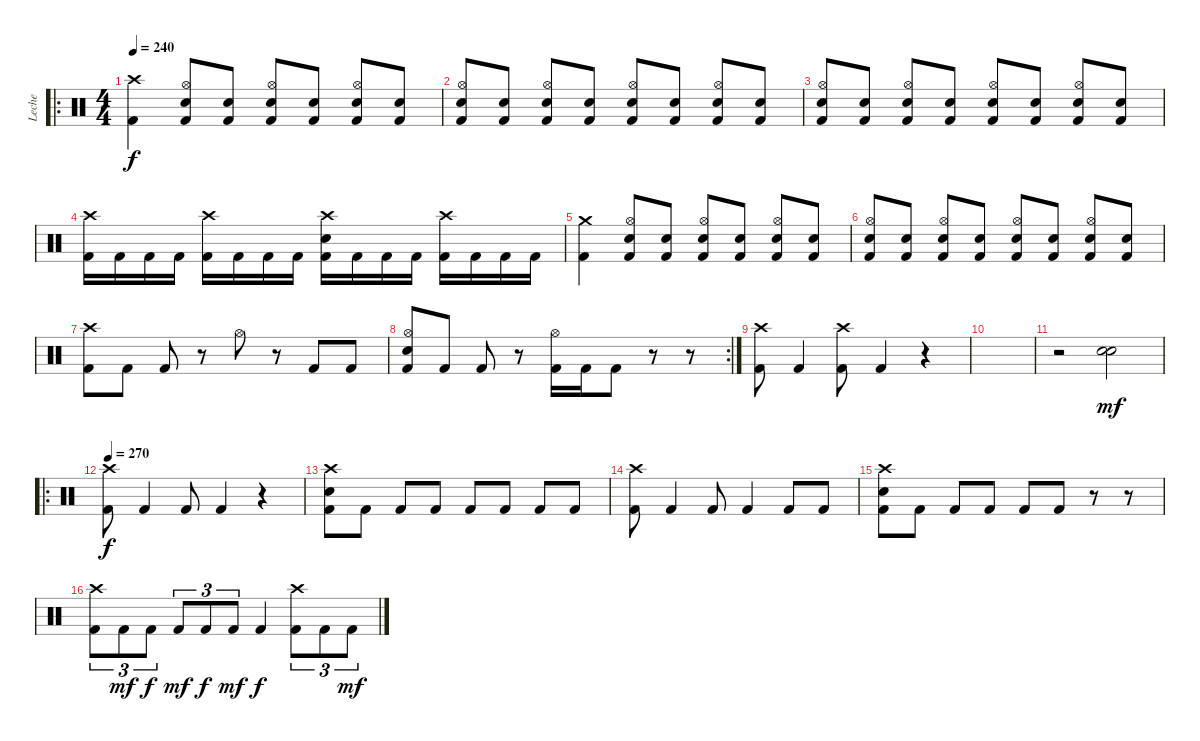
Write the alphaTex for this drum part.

\track ("Leche" "Leche") {instrument percussion}
\staff {score}
\articulation defaults
\ro
\ts (4 4)
\tempo 240
\clef neutral
\ks c
("Crash high (hit)" "Kick (hit) 2").4{dy f} ("Hi-Hat (open)" "Electric Snare (hit)" "Kick (hit) 2").8 ("Electric Snare (hit)" "Kick (hit) 2").8 ("Hi-Hat (open)" "Electric Snare (hit)" "Kick (hit) 2").8 ("Electric Snare (hit)" "Kick (hit) 2").8 ("Hi-Hat (open)" "Electric Snare (hit)" "Kick (hit) 2").8 ("Electric Snare (hit)" "Kick (hit) 2").8 |
("Hi-Hat (open)" "Electric Snare (hit)" "Kick (hit) 2").8 ("Electric Snare (hit)" "Kick (hit) 2").8 ("Hi-Hat (open)" "Electric Snare (hit)" "Kick (hit) 2").8 ("Electric Snare (hit)" "Kick (hit) 2").8 ("Hi-Hat (open)" "Electric Snare (hit)" "Kick (hit) 2").8 ("Electric Snare (hit)" "Kick (hit) 2").8 ("Hi-Hat (open)" "Electric Snare (hit)" "Kick (hit) 2").8 ("Electric Snare (hit)" "Kick (hit) 2").8 |
("Hi-Hat (open)" "Electric Snare (hit)" "Kick (hit) 2").8 ("Electric Snare (hit)" "Kick (hit) 2").8 ("Hi-Hat (open)" "Electric Snare (hit)" "Kick (hit) 2").8 ("Electric Snare (hit)" "Kick (hit) 2").8 ("Hi-Hat (open)" "Electric Snare (hit)" "Kick (hit) 2").8 ("Electric Snare (hit)" "Kick (hit) 2").8 ("Hi-Hat (open)" "Electric Snare (hit)" "Kick (hit) 2").8 ("Electric Snare (hit)" "Kick (hit) 2").8 |
("Crash high (hit)" "Kick (hit) 2").16 "Kick (hit) 2".16 "Kick (hit) 2".16 "Kick (hit) 2".16 ("Crash high (hit)" "Kick (hit) 2").16 "Kick (hit) 2".16 "Kick (hit) 2".16 "Kick (hit) 2".16 ("Crash high (hit)" "Electric Snare (hit)" "Kick (hit) 2").16 "Kick (hit) 2".16 "Kick (hit) 2".16 "Kick (hit) 2".16 ("Crash high (hit)" "Kick (hit) 2").16 "Kick (hit) 2".16 "Kick (hit) 2".16 "Kick (hit) 2".16 |
("Crash medium (hit)" "Kick (hit) 2").4 ("Hi-Hat (open)" "Electric Snare (hit)" "Kick (hit) 2").8 ("Electric Snare (hit)" "Kick (hit) 2").8 ("Hi-Hat (open)" "Electric Snare (hit)" "Kick (hit) 2").8 ("Electric Snare (hit)" "Kick (hit) 2").8 ("Hi-Hat (open)" "Electric Snare (hit)" "Kick (hit) 2").8 ("Electric Snare (hit)" "Kick (hit) 2").8 |
("Hi-Hat (open)" "Electric Snare (hit)" "Kick (hit) 2").8 ("Electric Snare (hit)" "Kick (hit) 2").8 ("Hi-Hat (open)" "Electric Snare (hit)" "Kick (hit) 2").8 ("Electric Snare (hit)" "Kick (hit) 2").8 ("Hi-Hat (open)" "Electric Snare (hit)" "Kick (hit) 2").8 ("Electric Snare (hit)" "Kick (hit) 2").8 ("Hi-Hat (open)" "Electric Snare (hit)" "Kick (hit) 2").8 ("Electric Snare (hit)" "Kick (hit) 2").8 |
("Crash high (hit)" "Kick (hit) 2").8 "Kick (hit) 2".8 "Kick (hit) 2".8 r.8 "Hi-Hat (open)".8 r.8 "Kick (hit) 2".8 "Kick (hit) 2".8 |
\rc 2
("Hi-Hat (open)" "Electric Snare (hit)" "Kick (hit) 2").8 "Kick (hit) 2".8 "Kick (hit) 2".8 r.8 ("Hi-Hat (open)" "Kick (hit) 2").16 "Kick (hit) 2".16 "Kick (hit) 2".8 r.8 r.8 |
("Crash high (hit)" "Kick (hit) 2").8 "Kick (hit) 2".4 ("Crash high (hit)" "Kick (hit) 2").8 "Kick (hit) 2".4 r.4 |
|
r.2 ("Electric Snare (hit)" "Electric Snare (hit)").2{bu 120 dy mf} |
\ro
\tempo 270
("Crash high (hit)" "Kick (hit) 2").8{dy f} "Kick (hit) 2".4 "Kick (hit) 2".8 "Kick (hit) 2".4 r.4 |
("Crash high (hit)" "Electric Snare (hit)" "Kick (hit) 2").8 "Kick (hit) 2".8 "Kick (hit) 2".8 "Kick (hit) 2".8 "Kick (hit) 2".8 "Kick (hit) 2".8 "Kick (hit) 2".8 "Kick (hit) 2".8 |
("Crash high (hit)" "Kick (hit) 2").8 "Kick (hit) 2".4 "Kick (hit) 2".8 "Kick (hit) 2".4 "Kick (hit) 2".8 "Kick (hit) 2".8 |
("Crash high (hit)" "Electric Snare (hit)" "Kick (hit) 2").8 "Kick (hit) 2".8 "Kick (hit) 2".8 "Kick (hit) 2".8 "Kick (hit) 2".8 "Kick (hit) 2".8 r.8 r.8 |
("Crash high (hit)" "Kick (hit) 2").8{tu (3 2)} "Kick (hit) 2".8{tu (3 2) dy mf} "Kick (hit) 2".8{tu (3 2) dy f} "Kick (hit) 2".8{tu (3 2) dy mf} "Kick (hit) 2".8{tu (3 2) dy f} "Kick (hit) 2".8{tu (3 2) dy mf} "Kick (hit) 2".4{dy f} ("Crash high (hit)" "Kick (hit) 2").8{tu (3 2)} "Kick (hit) 2".8{tu (3 2)} "Kick (hit) 2".8{tu (3 2) dy mf}
